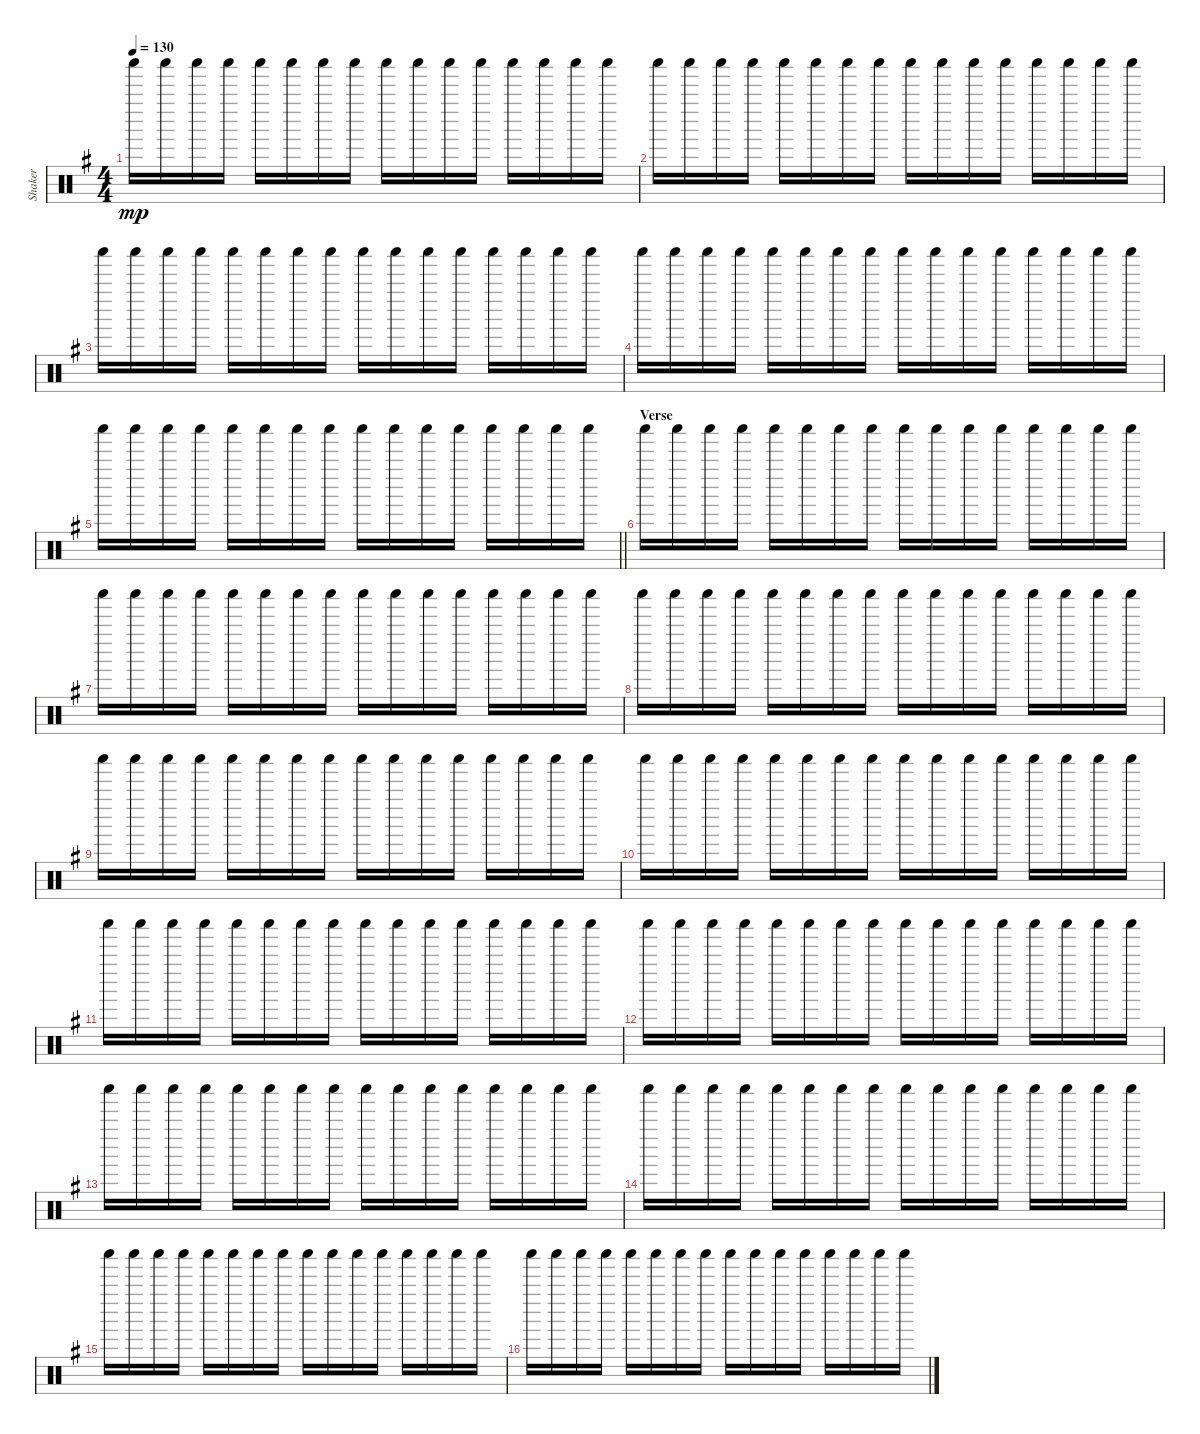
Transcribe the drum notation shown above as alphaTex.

\track ("Shaker" "Shaker") {instrument percussion}
\staff {score}
\articulation defaults
\ts (4 4)
\tempo 130
\clef neutral
\ks g "Shaker (hit)".16{dy mp} "Shaker (hit)".16 "Shaker (hit)".16 "Shaker (hit)".16 "Shaker (hit)".16 "Shaker (hit)".16 "Shaker (hit)".16 "Shaker (hit)".16 "Shaker (hit)".16 "Shaker (hit)".16 "Shaker (hit)".16 "Shaker (hit)".16 "Shaker (hit)".16 "Shaker (hit)".16 "Shaker (hit)".16 "Shaker (hit)".16
|
"Shaker (hit)".16 "Shaker (hit)".16 "Shaker (hit)".16 "Shaker (hit)".16 "Shaker (hit)".16 "Shaker (hit)".16 "Shaker (hit)".16 "Shaker (hit)".16 "Shaker (hit)".16 "Shaker (hit)".16 "Shaker (hit)".16 "Shaker (hit)".16 "Shaker (hit)".16 "Shaker (hit)".16 "Shaker (hit)".16 "Shaker (hit)".16 |
"Shaker (hit)".16 "Shaker (hit)".16 "Shaker (hit)".16 "Shaker (hit)".16 "Shaker (hit)".16 "Shaker (hit)".16 "Shaker (hit)".16 "Shaker (hit)".16 "Shaker (hit)".16 "Shaker (hit)".16 "Shaker (hit)".16 "Shaker (hit)".16 "Shaker (hit)".16 "Shaker (hit)".16 "Shaker (hit)".16 "Shaker (hit)".16 |
"Shaker (hit)".16 "Shaker (hit)".16 "Shaker (hit)".16 "Shaker (hit)".16 "Shaker (hit)".16 "Shaker (hit)".16 "Shaker (hit)".16 "Shaker (hit)".16 "Shaker (hit)".16 "Shaker (hit)".16 "Shaker (hit)".16 "Shaker (hit)".16 "Shaker (hit)".16 "Shaker (hit)".16 "Shaker (hit)".16 "Shaker (hit)".16 |
\barLineRight lightlight "Shaker (hit)".16 "Shaker (hit)".16 "Shaker (hit)".16 "Shaker (hit)".16 "Shaker (hit)".16 "Shaker (hit)".16 "Shaker (hit)".16 "Shaker (hit)".16 "Shaker (hit)".16 "Shaker (hit)".16 "Shaker (hit)".16 "Shaker (hit)".16 "Shaker (hit)".16 "Shaker (hit)".16 "Shaker (hit)".16 "Shaker (hit)".16
|
\section ("" "Verse")
"Shaker (hit)".16 "Shaker (hit)".16 "Shaker (hit)".16 "Shaker (hit)".16 "Shaker (hit)".16 "Shaker (hit)".16 "Shaker (hit)".16 "Shaker (hit)".16 "Shaker (hit)".16 "Shaker (hit)".16 "Shaker (hit)".16 "Shaker (hit)".16 "Shaker (hit)".16 "Shaker (hit)".16 "Shaker (hit)".16 "Shaker (hit)".16 |
"Shaker (hit)".16 "Shaker (hit)".16 "Shaker (hit)".16 "Shaker (hit)".16 "Shaker (hit)".16 "Shaker (hit)".16 "Shaker (hit)".16 "Shaker (hit)".16 "Shaker (hit)".16 "Shaker (hit)".16 "Shaker (hit)".16 "Shaker (hit)".16 "Shaker (hit)".16 "Shaker (hit)".16 "Shaker (hit)".16 "Shaker (hit)".16 |
"Shaker (hit)".16 "Shaker (hit)".16 "Shaker (hit)".16 "Shaker (hit)".16 "Shaker (hit)".16 "Shaker (hit)".16 "Shaker (hit)".16 "Shaker (hit)".16 "Shaker (hit)".16 "Shaker (hit)".16 "Shaker (hit)".16 "Shaker (hit)".16 "Shaker (hit)".16 "Shaker (hit)".16 "Shaker (hit)".16 "Shaker (hit)".16 |
"Shaker (hit)".16 "Shaker (hit)".16 "Shaker (hit)".16 "Shaker (hit)".16 "Shaker (hit)".16 "Shaker (hit)".16 "Shaker (hit)".16 "Shaker (hit)".16 "Shaker (hit)".16 "Shaker (hit)".16 "Shaker (hit)".16 "Shaker (hit)".16 "Shaker (hit)".16 "Shaker (hit)".16 "Shaker (hit)".16 "Shaker (hit)".16 |
"Shaker (hit)".16 "Shaker (hit)".16 "Shaker (hit)".16 "Shaker (hit)".16 "Shaker (hit)".16 "Shaker (hit)".16 "Shaker (hit)".16 "Shaker (hit)".16 "Shaker (hit)".16 "Shaker (hit)".16 "Shaker (hit)".16 "Shaker (hit)".16 "Shaker (hit)".16 "Shaker (hit)".16 "Shaker (hit)".16 "Shaker (hit)".16 |
"Shaker (hit)".16 "Shaker (hit)".16 "Shaker (hit)".16 "Shaker (hit)".16 "Shaker (hit)".16 "Shaker (hit)".16 "Shaker (hit)".16 "Shaker (hit)".16 "Shaker (hit)".16 "Shaker (hit)".16 "Shaker (hit)".16 "Shaker (hit)".16 "Shaker (hit)".16 "Shaker (hit)".16 "Shaker (hit)".16 "Shaker (hit)".16 |
"Shaker (hit)".16 "Shaker (hit)".16 "Shaker (hit)".16 "Shaker (hit)".16 "Shaker (hit)".16 "Shaker (hit)".16 "Shaker (hit)".16 "Shaker (hit)".16 "Shaker (hit)".16 "Shaker (hit)".16 "Shaker (hit)".16 "Shaker (hit)".16 "Shaker (hit)".16 "Shaker (hit)".16 "Shaker (hit)".16 "Shaker (hit)".16 |
"Shaker (hit)".16 "Shaker (hit)".16 "Shaker (hit)".16 "Shaker (hit)".16 "Shaker (hit)".16 "Shaker (hit)".16 "Shaker (hit)".16 "Shaker (hit)".16 "Shaker (hit)".16 "Shaker (hit)".16 "Shaker (hit)".16 "Shaker (hit)".16 "Shaker (hit)".16 "Shaker (hit)".16 "Shaker (hit)".16 "Shaker (hit)".16 |
"Shaker (hit)".16 "Shaker (hit)".16 "Shaker (hit)".16 "Shaker (hit)".16 "Shaker (hit)".16 "Shaker (hit)".16 "Shaker (hit)".16 "Shaker (hit)".16 "Shaker (hit)".16 "Shaker (hit)".16 "Shaker (hit)".16 "Shaker (hit)".16 "Shaker (hit)".16 "Shaker (hit)".16 "Shaker (hit)".16 "Shaker (hit)".16 |
"Shaker (hit)".16 "Shaker (hit)".16 "Shaker (hit)".16 "Shaker (hit)".16 "Shaker (hit)".16 "Shaker (hit)".16 "Shaker (hit)".16 "Shaker (hit)".16 "Shaker (hit)".16 "Shaker (hit)".16 "Shaker (hit)".16 "Shaker (hit)".16 "Shaker (hit)".16 "Shaker (hit)".16 "Shaker (hit)".16 "Shaker (hit)".16 |
"Shaker (hit)".16 "Shaker (hit)".16 "Shaker (hit)".16 "Shaker (hit)".16 "Shaker (hit)".16 "Shaker (hit)".16 "Shaker (hit)".16 "Shaker (hit)".16 "Shaker (hit)".16 "Shaker (hit)".16 "Shaker (hit)".16 "Shaker (hit)".16 "Shaker (hit)".16 "Shaker (hit)".16 "Shaker (hit)".16 "Shaker (hit)".16
